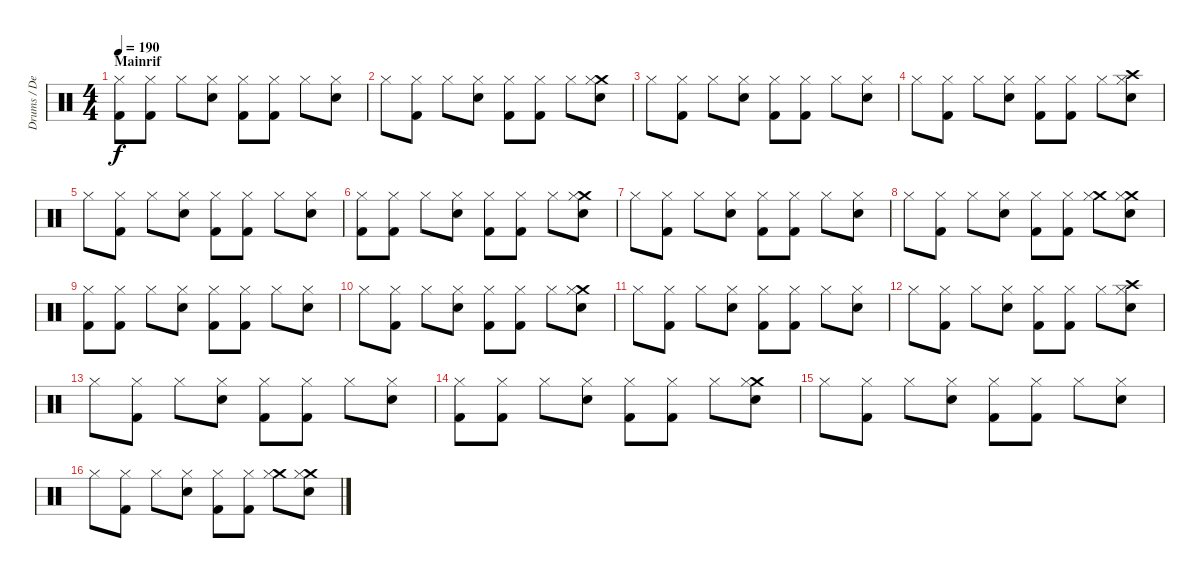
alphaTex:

\track ("Drums / Dennis" "Drums / De") {instrument percussion}
\staff {score}
\articulation defaults
\ts (4 4)
\section ("" "Mainrif")
\tempo 190
\clef neutral
\ks c
("Kick (hit) 2" "Hi-Hat (closed)").8{dy f} ("Kick (hit) 2" "Hi-Hat (closed)").8 "Hi-Hat (closed)".8 ("Snare (hit) 2" "Hi-Hat (closed)").8 ("Kick (hit) 2" "Hi-Hat (closed)").8 ("Kick (hit) 2" "Hi-Hat (closed)").8 "Hi-Hat (closed)".8 ("Snare (hit) 2" "Hi-Hat (closed)").8 |
"Hi-Hat (closed)".8 ("Kick (hit) 2" "Hi-Hat (closed)").8 "Hi-Hat (closed)".8 ("Snare (hit) 2" "Hi-Hat (closed)").8 ("Kick (hit) 2" "Hi-Hat (closed)").8 ("Kick (hit) 2" "Hi-Hat (closed)").8 "Hi-Hat (closed)".8 ("Crash medium (hit)" "Snare (hit) 2" "Hi-Hat (closed)").8 |
"Hi-Hat (closed)".8 ("Kick (hit) 2" "Hi-Hat (closed)").8 "Hi-Hat (closed)".8 ("Snare (hit) 2" "Hi-Hat (closed)").8 ("Kick (hit) 2" "Hi-Hat (closed)").8 ("Kick (hit) 2" "Hi-Hat (closed)").8 "Hi-Hat (closed)".8 ("Snare (hit) 2" "Hi-Hat (closed)").8 |
"Hi-Hat (closed)".8 ("Kick (hit) 2" "Hi-Hat (closed)").8 "Hi-Hat (closed)".8 ("Snare (hit) 2" "Hi-Hat (closed)").8 ("Kick (hit) 2" "Hi-Hat (closed)").8 ("Kick (hit) 2" "Hi-Hat (closed)").8 "Hi-Hat (closed)".8 ("Crash high (hit)" "Snare (hit) 2" "Hi-Hat (closed)").8 |
"Hi-Hat (closed)".8 ("Kick (hit) 2" "Hi-Hat (closed)").8 "Hi-Hat (closed)".8 ("Snare (hit) 2" "Hi-Hat (closed)").8 ("Kick (hit) 2" "Hi-Hat (closed)").8 ("Kick (hit) 2" "Hi-Hat (closed)").8 "Hi-Hat (closed)".8 ("Snare (hit) 2" "Hi-Hat (closed)").8 |
("Kick (hit) 2" "Hi-Hat (closed)").8 ("Kick (hit) 2" "Hi-Hat (closed)").8 "Hi-Hat (closed)".8 ("Snare (hit) 2" "Hi-Hat (closed)").8 ("Kick (hit) 2" "Hi-Hat (closed)").8 ("Kick (hit) 2" "Hi-Hat (closed)").8 "Hi-Hat (closed)".8 ("Crash medium (hit)" "Snare (hit) 2" "Hi-Hat (closed)").8 |
"Hi-Hat (closed)".8 ("Kick (hit) 2" "Hi-Hat (closed)").8 "Hi-Hat (closed)".8 ("Snare (hit) 2" "Hi-Hat (closed)").8 ("Kick (hit) 2" "Hi-Hat (closed)").8 ("Kick (hit) 2" "Hi-Hat (closed)").8 "Hi-Hat (closed)".8 ("Snare (hit) 2" "Hi-Hat (closed)").8 |
"Hi-Hat (closed)".8 ("Kick (hit) 2" "Hi-Hat (closed)").8 "Hi-Hat (closed)".8 ("Snare (hit) 2" "Hi-Hat (closed)").8 ("Kick (hit) 2" "Hi-Hat (closed)").8 ("Kick (hit) 2" "Hi-Hat (closed)").8 ("Crash medium (hit)" "Hi-Hat (closed)").8 ("Crash medium (hit)" "Snare (hit) 2" "Hi-Hat (closed)").8 |
("Kick (hit) 2" "Hi-Hat (closed)").8 ("Kick (hit) 2" "Hi-Hat (closed)").8 "Hi-Hat (closed)".8 ("Snare (hit) 2" "Hi-Hat (closed)").8 ("Kick (hit) 2" "Hi-Hat (closed)").8 ("Kick (hit) 2" "Hi-Hat (closed)").8 "Hi-Hat (closed)".8 ("Snare (hit) 2" "Hi-Hat (closed)").8 |
"Hi-Hat (closed)".8 ("Kick (hit) 2" "Hi-Hat (closed)").8 "Hi-Hat (closed)".8 ("Snare (hit) 2" "Hi-Hat (closed)").8 ("Kick (hit) 2" "Hi-Hat (closed)").8 ("Kick (hit) 2" "Hi-Hat (closed)").8 "Hi-Hat (closed)".8 ("Crash medium (hit)" "Snare (hit) 2" "Hi-Hat (closed)").8 |
"Hi-Hat (closed)".8 ("Kick (hit) 2" "Hi-Hat (closed)").8 "Hi-Hat (closed)".8 ("Snare (hit) 2" "Hi-Hat (closed)").8 ("Kick (hit) 2" "Hi-Hat (closed)").8 ("Kick (hit) 2" "Hi-Hat (closed)").8 "Hi-Hat (closed)".8 ("Snare (hit) 2" "Hi-Hat (closed)").8 |
"Hi-Hat (closed)".8 ("Kick (hit) 2" "Hi-Hat (closed)").8 "Hi-Hat (closed)".8 ("Snare (hit) 2" "Hi-Hat (closed)").8 ("Kick (hit) 2" "Hi-Hat (closed)").8 ("Kick (hit) 2" "Hi-Hat (closed)").8 "Hi-Hat (closed)".8 ("Crash high (hit)" "Snare (hit) 2" "Hi-Hat (closed)").8 |
"Hi-Hat (closed)".8 ("Kick (hit) 2" "Hi-Hat (closed)").8 "Hi-Hat (closed)".8 ("Snare (hit) 2" "Hi-Hat (closed)").8 ("Kick (hit) 2" "Hi-Hat (closed)").8 ("Kick (hit) 2" "Hi-Hat (closed)").8 "Hi-Hat (closed)".8 ("Snare (hit) 2" "Hi-Hat (closed)").8 |
("Kick (hit) 2" "Hi-Hat (closed)").8 ("Kick (hit) 2" "Hi-Hat (closed)").8 "Hi-Hat (closed)".8 ("Snare (hit) 2" "Hi-Hat (closed)").8 ("Kick (hit) 2" "Hi-Hat (closed)").8 ("Kick (hit) 2" "Hi-Hat (closed)").8 "Hi-Hat (closed)".8 ("Crash medium (hit)" "Snare (hit) 2" "Hi-Hat (closed)").8 |
"Hi-Hat (closed)".8 ("Kick (hit) 2" "Hi-Hat (closed)").8 "Hi-Hat (closed)".8 ("Snare (hit) 2" "Hi-Hat (closed)").8 ("Kick (hit) 2" "Hi-Hat (closed)").8 ("Kick (hit) 2" "Hi-Hat (closed)").8 "Hi-Hat (closed)".8 ("Snare (hit) 2" "Hi-Hat (closed)").8 |
"Hi-Hat (closed)".8 ("Kick (hit) 2" "Hi-Hat (closed)").8 "Hi-Hat (closed)".8 ("Snare (hit) 2" "Hi-Hat (closed)").8 ("Kick (hit) 2" "Hi-Hat (closed)").8 ("Kick (hit) 2" "Hi-Hat (closed)").8 ("Crash medium (hit)" "Hi-Hat (closed)").8 ("Crash medium (hit)" "Snare (hit) 2" "Hi-Hat (closed)").8
